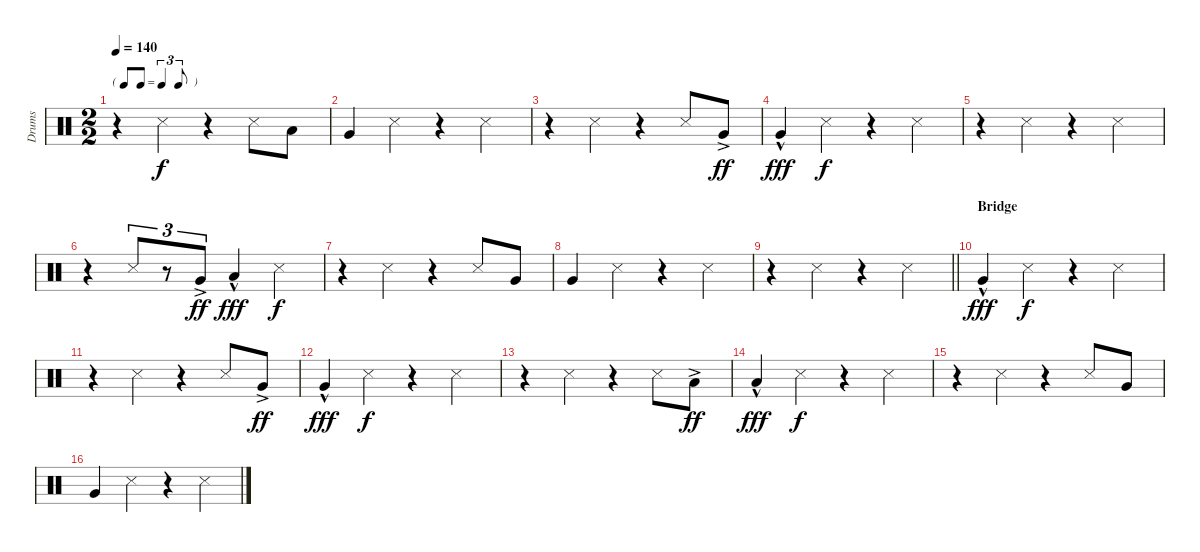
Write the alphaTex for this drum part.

\track ("Drums" "Drums") {instrument percussion}
\staff {score}
\articulation defaults
\ts (2 2)
\tf triplet8th
\tempo 140
\clef neutral
\ks c
r.4{dy f} "Metronome (hit)".4 r.4 "Metronome (hit)".8 "Low Tom (hit)".8 |
"Very Low Tom (hit)".4 "Metronome (hit)".4 r.4 "Metronome (hit)".4 |
r.4 "Metronome (hit)".4 r.4 "Metronome (hit)".8 "Very Low Tom (hit)"{ac}.8{dy ff} |
"Very Low Tom (hit)"{hac}.4{dy fff} "Metronome (hit)".4{dy f} r.4 "Metronome (hit)".4 |
r.4 "Metronome (hit)".4 r.4 "Metronome (hit)".4 |
r.4 "Metronome (hit)".8{tu (3 2)} r.8{tu (3 2)} "Very Low Tom (hit)"{ac}.8{tu (3 2) dy ff} "Low Floor Tom (hit)"{hac}.4{dy fff} "Metronome (hit)".4{dy f} |
r.4 "Metronome (hit)".4 r.4 "Metronome (hit)".8 "Very Low Tom (hit)".8 |
"Very Low Tom (hit)".4 "Metronome (hit)".4 r.4 "Metronome (hit)".4 |
\barLineRight lightlight
r.4 "Metronome (hit)".4 r.4 "Metronome (hit)".4 |
\section ("" "Bridge")
"Very Low Tom (hit)"{hac}.4{dy fff} "Metronome (hit)".4{dy f} r.4 "Metronome (hit)".4 |
r.4 "Metronome (hit)".4 r.4 "Metronome (hit)".8 "Very Low Tom (hit)"{ac}.8{dy ff} |
"Very Low Tom (hit)"{hac}.4{dy fff} "Metronome (hit)".4{dy f} r.4 "Metronome (hit)".4 |
r.4 "Metronome (hit)".4 r.4 "Metronome (hit)".8 "Low Floor Tom (hit)"{ac}.8{dy ff} |
"Low Floor Tom (hit)"{hac}.4{dy fff} "Metronome (hit)".4{dy f} r.4 "Metronome (hit)".4 |
r.4 "Metronome (hit)".4 r.4 "Metronome (hit)".8 "Very Low Tom (hit)".8 |
"Very Low Tom (hit)".4 "Metronome (hit)".4 r.4 "Metronome (hit)".4
